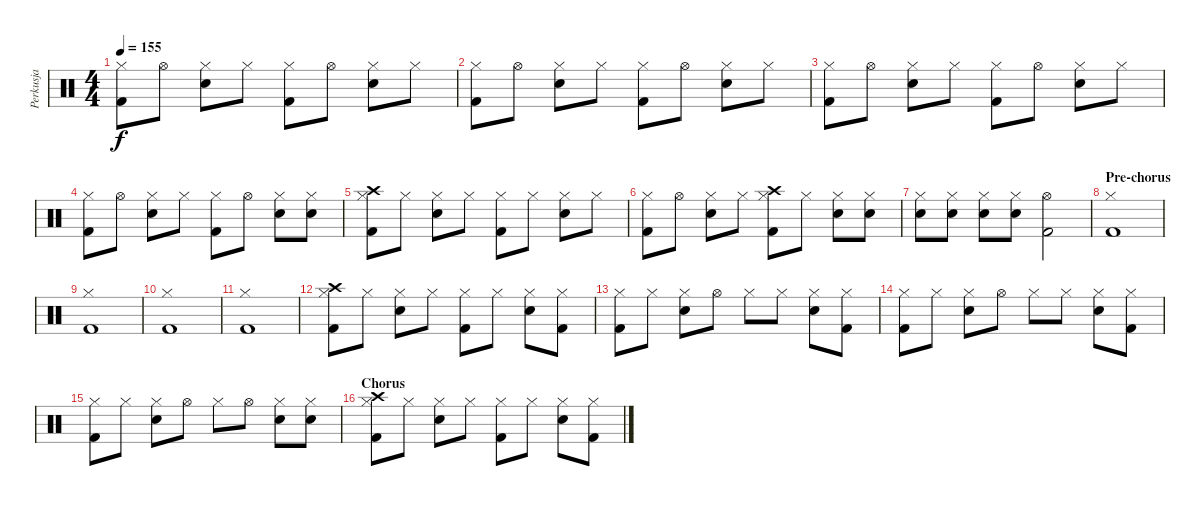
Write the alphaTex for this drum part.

\track ("Perkusja" "Perkusja") {instrument percussion}
\staff {score}
\articulation defaults
\ts (4 4)
\tempo 155
\clef neutral
\ks c
("Hi-Hat (closed)" "Kick (hit) 2").8{dy f} "Hi-Hat (open)".8 ("Hi-Hat (closed)" "Electric Snare (hit)").8 "Hi-Hat (closed)".8 ("Hi-Hat (closed)" "Kick (hit) 2").8 "Hi-Hat (open)".8 ("Hi-Hat (closed)" "Electric Snare (hit)").8 "Hi-Hat (closed)".8 |
("Hi-Hat (closed)" "Kick (hit) 2").8 "Hi-Hat (open)".8 ("Hi-Hat (closed)" "Electric Snare (hit)").8 "Hi-Hat (closed)".8 ("Hi-Hat (closed)" "Kick (hit) 2").8 "Hi-Hat (open)".8 ("Hi-Hat (closed)" "Electric Snare (hit)").8 "Hi-Hat (closed)".8 |
("Hi-Hat (closed)" "Kick (hit) 2").8 "Hi-Hat (open)".8 ("Hi-Hat (closed)" "Electric Snare (hit)").8 "Hi-Hat (closed)".8 ("Hi-Hat (closed)" "Kick (hit) 2").8 "Hi-Hat (open)".8 ("Hi-Hat (closed)" "Electric Snare (hit)").8 "Hi-Hat (closed)".8 |
("Hi-Hat (closed)" "Kick (hit) 2").8 "Hi-Hat (open)".8 ("Hi-Hat (closed)" "Electric Snare (hit)").8 "Hi-Hat (closed)".8 ("Hi-Hat (closed)" "Kick (hit) 2").8 "Hi-Hat (open)".8 ("Hi-Hat (closed)" "Electric Snare (hit)").8 ("Hi-Hat (closed)" "Electric Snare (hit)").8 |
("Hi-Hat (closed)" "Kick (hit) 2" "Crash high (hit)").8 "Hi-Hat (closed)".8 ("Hi-Hat (closed)" "Electric Snare (hit)").8 "Hi-Hat (closed)".8 ("Hi-Hat (closed)" "Kick (hit) 2").8 "Hi-Hat (closed)".8 ("Hi-Hat (closed)" "Electric Snare (hit)").8 "Hi-Hat (closed)".8 |
("Hi-Hat (closed)" "Kick (hit) 2").8 "Hi-Hat (open)".8 ("Hi-Hat (closed)" "Electric Snare (hit)").8 "Hi-Hat (closed)".8 ("Hi-Hat (closed)" "Kick (hit) 2" "Crash high (hit)").8 "Hi-Hat (closed)".8 ("Hi-Hat (closed)" "Electric Snare (hit)").8 ("Hi-Hat (closed)" "Electric Snare (hit)").8 |
("Hi-Hat (closed)" "Electric Snare (hit)").8 ("Hi-Hat (closed)" "Electric Snare (hit)").8 ("Hi-Hat (closed)" "Electric Snare (hit)").8 ("Hi-Hat (closed)" "Electric Snare (hit)").8 ("Kick (hit) 2" "Hi-Hat (open)").2 |
\section ("" "Pre-chorus")
("Kick (hit) 2" "Hi-Hat (closed)").1 |
("Kick (hit) 2" "Hi-Hat (closed)").1 |
("Kick (hit) 2" "Hi-Hat (closed)").1 |
("Kick (hit) 2" "Hi-Hat (closed)").1 |
("Hi-Hat (closed)" "Kick (hit) 2" "Crash high (hit)").8 "Hi-Hat (closed)".8 ("Hi-Hat (closed)" "Electric Snare (hit)").8 "Hi-Hat (closed)".8 ("Hi-Hat (closed)" "Kick (hit) 2").8 "Hi-Hat (closed)".8 ("Hi-Hat (closed)" "Electric Snare (hit)").8 ("Hi-Hat (closed)" "Kick (hit) 2").8 |
("Hi-Hat (closed)" "Kick (hit) 2").8 "Hi-Hat (closed)".8 ("Hi-Hat (closed)" "Electric Snare (hit)").8 "Hi-Hat (open)".8 "Hi-Hat (closed)".8 "Hi-Hat (closed)".8 ("Hi-Hat (closed)" "Electric Snare (hit)").8 ("Hi-Hat (closed)" "Kick (hit) 2").8 |
("Hi-Hat (closed)" "Kick (hit) 2").8 "Hi-Hat (closed)".8 ("Hi-Hat (closed)" "Electric Snare (hit)").8 "Hi-Hat (open)".8 "Hi-Hat (closed)".8 "Hi-Hat (closed)".8 ("Hi-Hat (closed)" "Electric Snare (hit)").8 ("Hi-Hat (closed)" "Kick (hit) 2").8 |
("Hi-Hat (closed)" "Kick (hit) 2").8 "Hi-Hat (closed)".8 ("Hi-Hat (closed)" "Electric Snare (hit)").8 "Hi-Hat (open)".8 "Hi-Hat (closed)".8 "Hi-Hat (open)".8 ("Hi-Hat (closed)" "Electric Snare (hit)").8 ("Hi-Hat (closed)" "Electric Snare (hit)").8 |
\section ("" "Chorus")
("Hi-Hat (closed)" "Kick (hit) 2" "Crash high (hit)").8 "Hi-Hat (closed)".8 ("Hi-Hat (closed)" "Electric Snare (hit)").8 "Hi-Hat (closed)".8 ("Hi-Hat (closed)" "Kick (hit) 2").8 "Hi-Hat (closed)".8 ("Hi-Hat (closed)" "Electric Snare (hit)").8 ("Hi-Hat (closed)" "Kick (hit) 2").8
